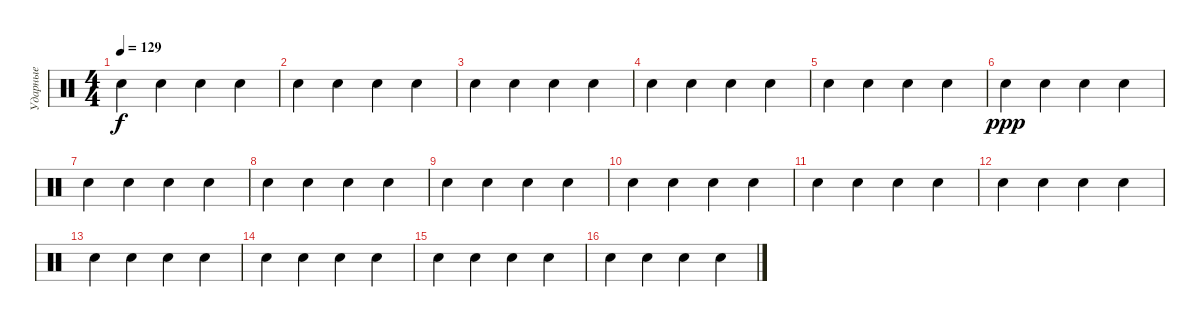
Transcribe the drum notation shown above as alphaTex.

\track ("Ударные" "Ударные") {instrument percussion}
\staff {score}
\articulation defaults
\ts (4 4)
\tempo 129
\clef neutral
\ks c "Hand Clap (hit)".4{dy f} "Hand Clap (hit)".4 "Hand Clap (hit)".4 "Hand Clap (hit)".4
|
"Hand Clap (hit)".4 "Hand Clap (hit)".4 "Hand Clap (hit)".4 "Hand Clap (hit)".4 |
"Hand Clap (hit)".4 "Hand Clap (hit)".4 "Hand Clap (hit)".4 "Hand Clap (hit)".4 |
"Hand Clap (hit)".4 "Hand Clap (hit)".4 "Hand Clap (hit)".4 "Hand Clap (hit)".4 |
"Hand Clap (hit)".4 "Hand Clap (hit)".4 "Hand Clap (hit)".4 "Hand Clap (hit)".4 |
"Hand Clap (hit)".4{dy ppp} "Hand Clap (hit)".4 "Hand Clap (hit)".4 "Hand Clap (hit)".4 |
"Hand Clap (hit)".4 "Hand Clap (hit)".4 "Hand Clap (hit)".4 "Hand Clap (hit)".4 |
"Hand Clap (hit)".4 "Hand Clap (hit)".4 "Hand Clap (hit)".4 "Hand Clap (hit)".4 |
"Hand Clap (hit)".4 "Hand Clap (hit)".4 "Hand Clap (hit)".4 "Hand Clap (hit)".4 |
"Hand Clap (hit)".4 "Hand Clap (hit)".4 "Hand Clap (hit)".4 "Hand Clap (hit)".4 |
"Hand Clap (hit)".4 "Hand Clap (hit)".4 "Hand Clap (hit)".4 "Hand Clap (hit)".4 |
"Hand Clap (hit)".4 "Hand Clap (hit)".4 "Hand Clap (hit)".4 "Hand Clap (hit)".4 |
"Hand Clap (hit)".4 "Hand Clap (hit)".4 "Hand Clap (hit)".4 "Hand Clap (hit)".4 |
"Hand Clap (hit)".4 "Hand Clap (hit)".4 "Hand Clap (hit)".4 "Hand Clap (hit)".4 |
"Hand Clap (hit)".4 "Hand Clap (hit)".4 "Hand Clap (hit)".4 "Hand Clap (hit)".4 |
"Hand Clap (hit)".4 "Hand Clap (hit)".4 "Hand Clap (hit)".4 "Hand Clap (hit)".4
